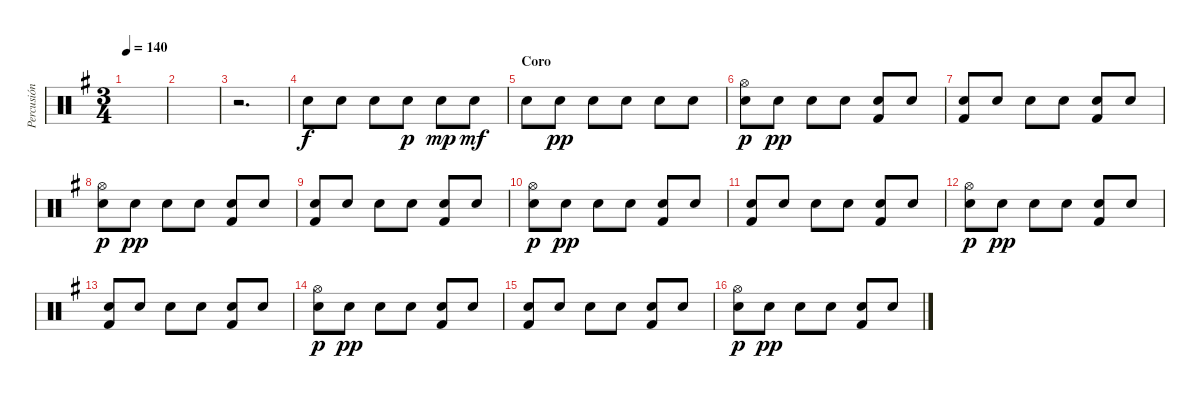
\track ("Percusión" "Percusión") {instrument percussion}
\staff {score}
\articulation defaults
\ts (3 4)
\tempo 140
\clef neutral
\ks g
|
|
r.2{d} |
"Snare (hit) 2".8 "Snare (hit) 2".8 "Snare (hit) 2".8 "Snare (hit) 2".8{dy p} "Snare (hit) 2".8{dy mp} "Snare (hit) 2".8{dy mf} |
\section ("" "Coro")
"Snare (hit) 2".8 "Snare (hit) 2".8{dy pp} "Snare (hit) 2".8 "Snare (hit) 2".8 "Snare (hit) 2".8 "Snare (hit) 2".8 |
("Snare (hit) 2" "Hi-Hat (open)").8{dy p} "Snare (hit) 2".8{dy pp} "Snare (hit) 2".8 "Snare (hit) 2".8 ("Snare (hit) 2" "Kick (hit) 2").8 "Snare (hit) 2".8 |
("Snare (hit) 2" "Kick (hit) 2").8 "Snare (hit) 2".8 "Snare (hit) 2".8 "Snare (hit) 2".8 ("Snare (hit) 2" "Kick (hit) 2").8 "Snare (hit) 2".8 |
("Snare (hit) 2" "Hi-Hat (open)").8{dy p} "Snare (hit) 2".8{dy pp} "Snare (hit) 2".8 "Snare (hit) 2".8 ("Snare (hit) 2" "Kick (hit) 2").8 "Snare (hit) 2".8 |
("Snare (hit) 2" "Kick (hit) 2").8 "Snare (hit) 2".8 "Snare (hit) 2".8 "Snare (hit) 2".8 ("Snare (hit) 2" "Kick (hit) 2").8 "Snare (hit) 2".8 |
("Snare (hit) 2" "Hi-Hat (open)").8{dy p} "Snare (hit) 2".8{dy pp} "Snare (hit) 2".8 "Snare (hit) 2".8 ("Snare (hit) 2" "Kick (hit) 2").8 "Snare (hit) 2".8 |
("Snare (hit) 2" "Kick (hit) 2").8 "Snare (hit) 2".8 "Snare (hit) 2".8 "Snare (hit) 2".8 ("Snare (hit) 2" "Kick (hit) 2").8 "Snare (hit) 2".8 |
("Snare (hit) 2" "Hi-Hat (open)").8{dy p} "Snare (hit) 2".8{dy pp} "Snare (hit) 2".8 "Snare (hit) 2".8 ("Snare (hit) 2" "Kick (hit) 2").8 "Snare (hit) 2".8 |
("Snare (hit) 2" "Kick (hit) 2").8 "Snare (hit) 2".8 "Snare (hit) 2".8 "Snare (hit) 2".8 ("Snare (hit) 2" "Kick (hit) 2").8 "Snare (hit) 2".8 |
("Snare (hit) 2" "Hi-Hat (open)").8{dy p} "Snare (hit) 2".8{dy pp} "Snare (hit) 2".8 "Snare (hit) 2".8 ("Snare (hit) 2" "Kick (hit) 2").8 "Snare (hit) 2".8 |
("Snare (hit) 2" "Kick (hit) 2").8 "Snare (hit) 2".8 "Snare (hit) 2".8 "Snare (hit) 2".8 ("Snare (hit) 2" "Kick (hit) 2").8 "Snare (hit) 2".8 |
("Snare (hit) 2" "Hi-Hat (open)").8{dy p} "Snare (hit) 2".8{dy pp} "Snare (hit) 2".8 "Snare (hit) 2".8 ("Snare (hit) 2" "Kick (hit) 2").8 "Snare (hit) 2".8
